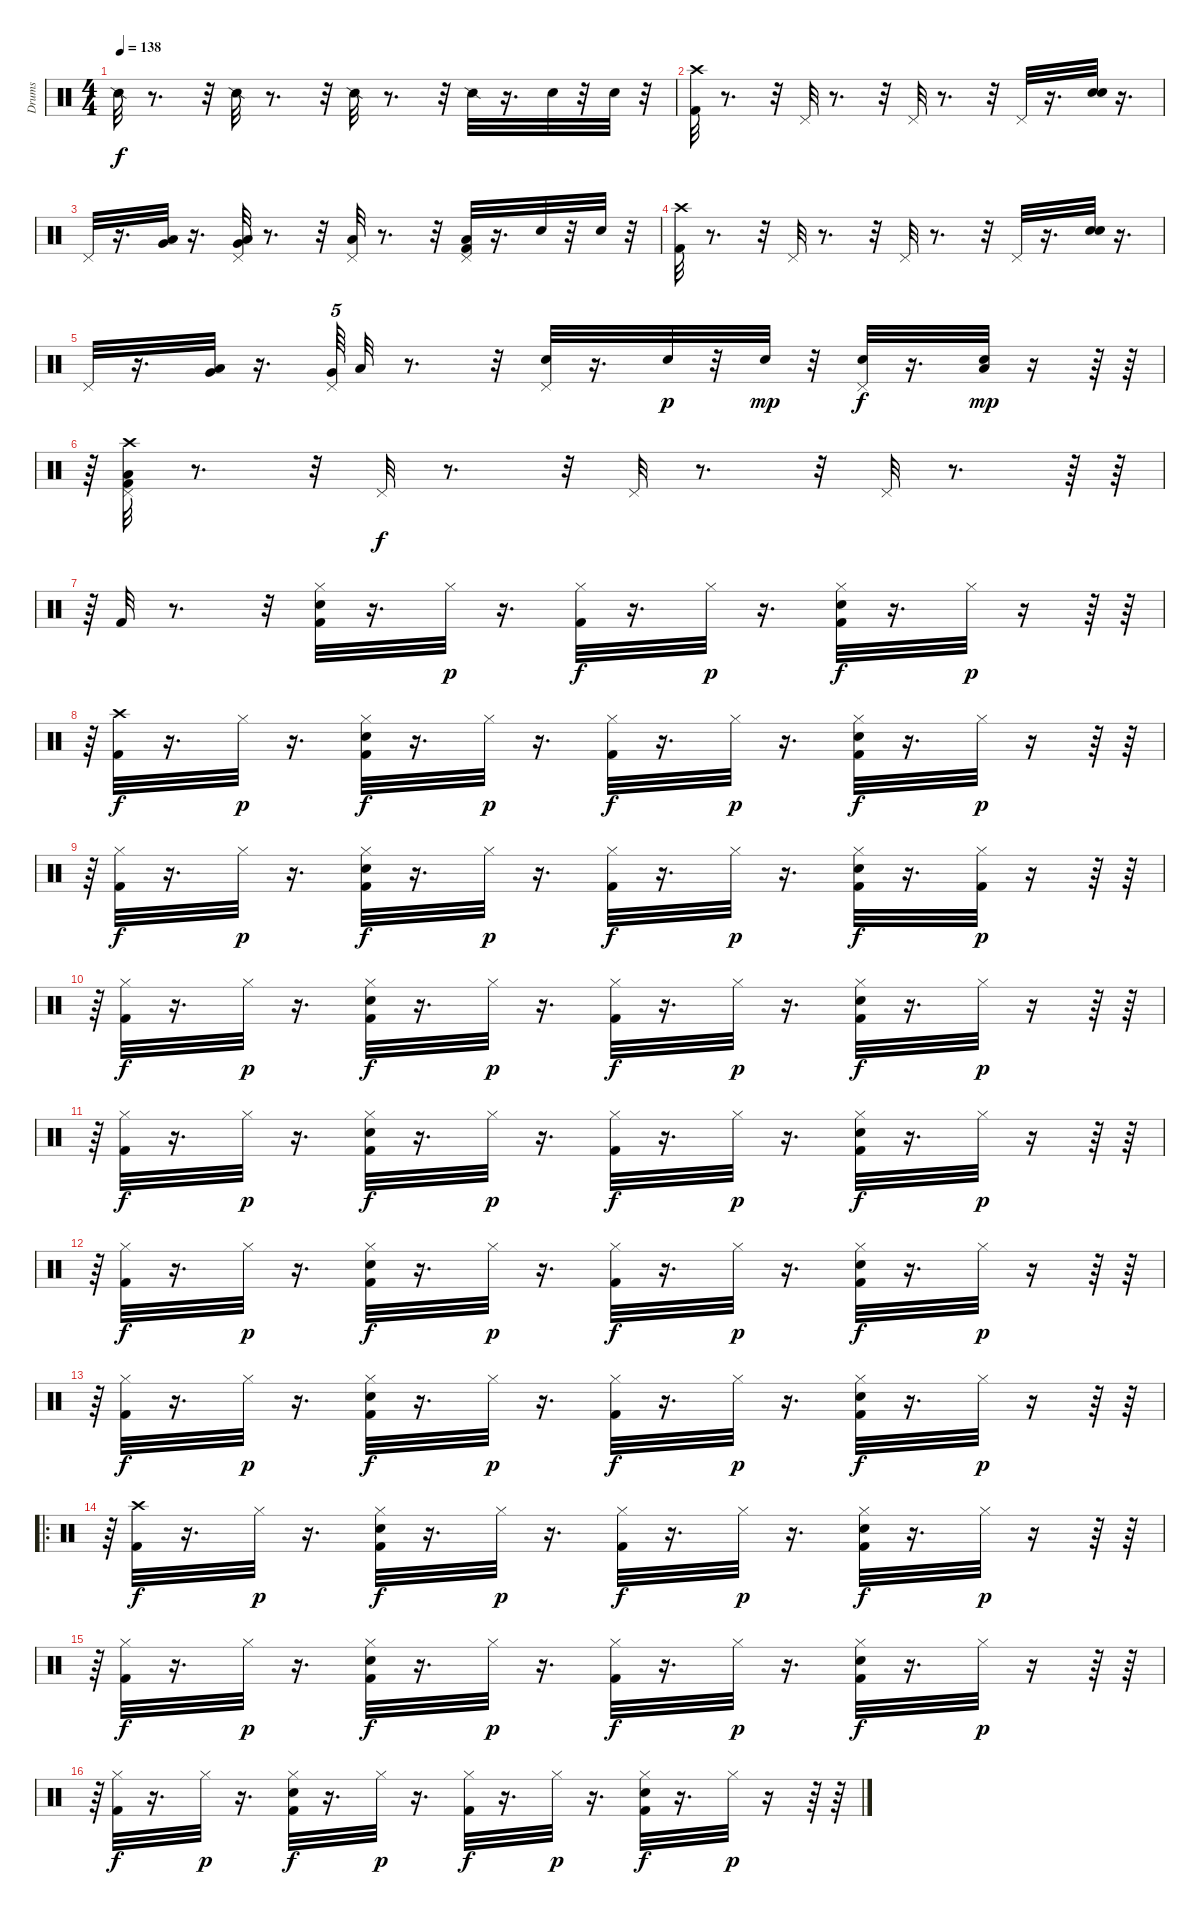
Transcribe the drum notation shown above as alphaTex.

\track ("Drums" "Drums") {instrument percussion}
\staff {score}
\articulation defaults
\ts (4 4)
\tempo 138
\clef neutral
\ks c "Snare (side stick) 2".32{dy f}
r.8{d} r.32 "Snare (side stick) 2".32 r.8{d} r.32 "Snare (side stick) 2".32 r.8{d} r.32 "Snare (side stick) 2".32 r.16{d} "Electric Snare (hit)".32 r.32 "Electric Snare (hit)".32 r.32 |
("Crash high (hit)" "Kick (hit) 2").32 r.8{d} r.32 "Pedal Hi-Hat (hit)".32 r.8{d} r.32 "Pedal Hi-Hat (hit)".32 r.8{d} r.32 "Pedal Hi-Hat (hit)".32 r.16{d} ("Electric Snare (hit)" "Snare (hit) 2").32 r.16{d} |
"Pedal Hi-Hat (hit)".32 r.16{d} ("Low Tom (hit)" "Very Low Tom (hit)").32 r.16{d} ("Pedal Hi-Hat (hit)" "Very Low Tom (hit)" "Low Floor Tom (hit)").32 r.8{d} r.32 ("Pedal Hi-Hat (hit)" "Low Floor Tom (hit)").32 r.8{d} r.32 ("Pedal Hi-Hat (hit)" "Kick (hit) 2" "Low Floor Tom (hit)").32 r.16{d} "Electric Snare (hit)".32 r.32 "Electric Snare (hit)".32 r.32 |
("Crash high (hit)" "Kick (hit) 2").32 r.8{d} r.32 "Pedal Hi-Hat (hit)".32 r.8{d} r.32 "Pedal Hi-Hat (hit)".32 r.8{d} r.32 "Pedal Hi-Hat (hit)".32 r.16{d} ("Electric Snare (hit)" "Snare (hit) 2").32 r.16{d} |
"Pedal Hi-Hat (hit)".32 r.16{d} ("Low Tom (hit)" "Very Low Tom (hit)").32 r.16{d} ("Pedal Hi-Hat (hit)" "Very Low Tom (hit)").64{tu (5 4)} "Low Floor Tom (hit)".32 r.8{d} r.32 ("Pedal Hi-Hat (hit)" "Electric Snare (hit)").32 r.16{d} "Electric Snare (hit)".32{dy p} r.32 "Electric Snare (hit)".32{dy mp} r.32 ("Pedal Hi-Hat (hit)" "Electric Snare (hit)").32{dy f} r.16{d} ("Low Tom (hit)" "Electric Snare (hit)").32{dy mp} r.16 r.64 r.64 |
r.64{tu (5 4)} ("Pedal Hi-Hat (hit)" "Crash high (hit)" "Low Tom (hit)" "Kick (hit) 2").32 r.8{d} r.32 "Pedal Hi-Hat (hit)".32{dy f} r.8{d} r.32 "Pedal Hi-Hat (hit)".32 r.8{d} r.32 "Pedal Hi-Hat (hit)".32 r.8{d} r.64 r.64 |
r.64{tu (5 4)} "Kick (hit) 2".32 r.8{d} r.32 ("Kick (hit) 2" "Hi-Hat (closed)" "Electric Snare (hit)").32 r.16{d} "Hi-Hat (closed)".32{dy p} r.16{d} ("Hi-Hat (closed)" "Kick (hit) 2").32{dy f} r.16{d} "Hi-Hat (closed)".32{dy p} r.16{d} ("Kick (hit) 2" "Hi-Hat (closed)" "Electric Snare (hit)").32{dy f} r.16{d} "Hi-Hat (closed)".32{dy p} r.16 r.64 r.64 |
r.64{tu (5 4)} ("Crash high (hit)" "Kick (hit) 2").32{dy f} r.16{d} "Hi-Hat (closed)".32{dy p} r.16{d} ("Kick (hit) 2" "Hi-Hat (closed)" "Electric Snare (hit)").32{dy f} r.16{d} "Hi-Hat (closed)".32{dy p} r.16{d} ("Hi-Hat (closed)" "Kick (hit) 2").32{dy f} r.16{d} "Hi-Hat (closed)".32{dy p} r.16{d} ("Kick (hit) 2" "Hi-Hat (closed)" "Electric Snare (hit)").32{dy f} r.16{d} "Hi-Hat (closed)".32{dy p} r.16 r.64 r.64 |
r.64{tu (5 4)} ("Hi-Hat (closed)" "Kick (hit) 2").32{dy f} r.16{d} "Hi-Hat (closed)".32{dy p} r.16{d} ("Kick (hit) 2" "Electric Snare (hit)" "Hi-Hat (closed)").32{dy f} r.16{d} "Hi-Hat (closed)".32{dy p} r.16{d} ("Hi-Hat (closed)" "Kick (hit) 2").32{dy f} r.16{d} "Hi-Hat (closed)".32{dy p} r.16{d} ("Kick (hit) 2" "Electric Snare (hit)" "Hi-Hat (closed)").32{dy f} r.16{d} ("Hi-Hat (closed)" "Kick (hit) 2").32{dy p} r.16 r.64 r.64 |
r.64{tu (5 4)} ("Hi-Hat (closed)" "Kick (hit) 2").32{dy f} r.16{d} "Hi-Hat (closed)".32{dy p} r.16{d} ("Kick (hit) 2" "Hi-Hat (closed)" "Electric Snare (hit)").32{dy f} r.16{d} "Hi-Hat (closed)".32{dy p} r.16{d} ("Hi-Hat (closed)" "Kick (hit) 2").32{dy f} r.16{d} "Hi-Hat (closed)".32{dy p} r.16{d} ("Kick (hit) 2" "Hi-Hat (closed)" "Electric Snare (hit)").32{dy f} r.16{d} "Hi-Hat (closed)".32{dy p} r.16 r.64 r.64 |
r.64{tu (5 4)} ("Hi-Hat (closed)" "Kick (hit) 2").32{dy f} r.16{d} "Hi-Hat (closed)".32{dy p} r.16{d} ("Kick (hit) 2" "Hi-Hat (closed)" "Electric Snare (hit)").32{dy f} r.16{d} "Hi-Hat (closed)".32{dy p} r.16{d} ("Hi-Hat (closed)" "Kick (hit) 2").32{dy f} r.16{d} "Hi-Hat (closed)".32{dy p} r.16{d} ("Kick (hit) 2" "Hi-Hat (closed)" "Electric Snare (hit)").32{dy f} r.16{d} "Hi-Hat (closed)".32{dy p} r.16 r.64 r.64 |
r.64{tu (5 4)} ("Hi-Hat (closed)" "Kick (hit) 2").32{dy f} r.16{d} "Hi-Hat (closed)".32{dy p} r.16{d} ("Kick (hit) 2" "Hi-Hat (closed)" "Electric Snare (hit)").32{dy f} r.16{d} "Hi-Hat (closed)".32{dy p} r.16{d} ("Hi-Hat (closed)" "Kick (hit) 2").32{dy f} r.16{d} "Hi-Hat (closed)".32{dy p} r.16{d} ("Kick (hit) 2" "Hi-Hat (closed)" "Electric Snare (hit)").32{dy f} r.16{d} "Hi-Hat (closed)".32{dy p} r.16 r.64 r.64 |
r.64{tu (5 4)} ("Hi-Hat (closed)" "Kick (hit) 2").32{dy f} r.16{d} "Hi-Hat (closed)".32{dy p} r.16{d} ("Kick (hit) 2" "Hi-Hat (closed)" "Electric Snare (hit)").32{dy f} r.16{d} "Hi-Hat (closed)".32{dy p} r.16{d} ("Hi-Hat (closed)" "Kick (hit) 2").32{dy f} r.16{d} "Hi-Hat (closed)".32{dy p} r.16{d} ("Kick (hit) 2" "Hi-Hat (closed)" "Electric Snare (hit)").32{dy f} r.16{d} "Hi-Hat (closed)".32{dy p} r.16 r.64 r.64 |
\ro
r.64{tu (5 4)} ("Crash high (hit)" "Kick (hit) 2").32{dy f} r.16{d} "Hi-Hat (closed)".32{dy p} r.16{d} ("Kick (hit) 2" "Hi-Hat (closed)" "Electric Snare (hit)").32{dy f} r.16{d} "Hi-Hat (closed)".32{dy p} r.16{d} ("Hi-Hat (closed)" "Kick (hit) 2").32{dy f} r.16{d} "Hi-Hat (closed)".32{dy p} r.16{d} ("Kick (hit) 2" "Hi-Hat (closed)" "Electric Snare (hit)").32{dy f} r.16{d} "Hi-Hat (closed)".32{dy p} r.16 r.64 r.64 |
r.64{tu (5 4)} ("Hi-Hat (closed)" "Kick (hit) 2").32{dy f} r.16{d} "Hi-Hat (closed)".32{dy p} r.16{d} ("Kick (hit) 2" "Hi-Hat (closed)" "Electric Snare (hit)").32{dy f} r.16{d} "Hi-Hat (closed)".32{dy p} r.16{d} ("Hi-Hat (closed)" "Kick (hit) 2").32{dy f} r.16{d} "Hi-Hat (closed)".32{dy p} r.16{d} ("Kick (hit) 2" "Hi-Hat (closed)" "Electric Snare (hit)").32{dy f} r.16{d} "Hi-Hat (closed)".32{dy p} r.16 r.64 r.64 |
r.64{tu (5 4)} ("Hi-Hat (closed)" "Kick (hit) 2").32{dy f} r.16{d} "Hi-Hat (closed)".32{dy p} r.16{d} ("Kick (hit) 2" "Hi-Hat (closed)" "Electric Snare (hit)").32{dy f} r.16{d} "Hi-Hat (closed)".32{dy p} r.16{d} ("Hi-Hat (closed)" "Kick (hit) 2").32{dy f} r.16{d} "Hi-Hat (closed)".32{dy p} r.16{d} ("Kick (hit) 2" "Hi-Hat (closed)" "Electric Snare (hit)").32{dy f} r.16{d} "Hi-Hat (closed)".32{dy p} r.16 r.64 r.64
